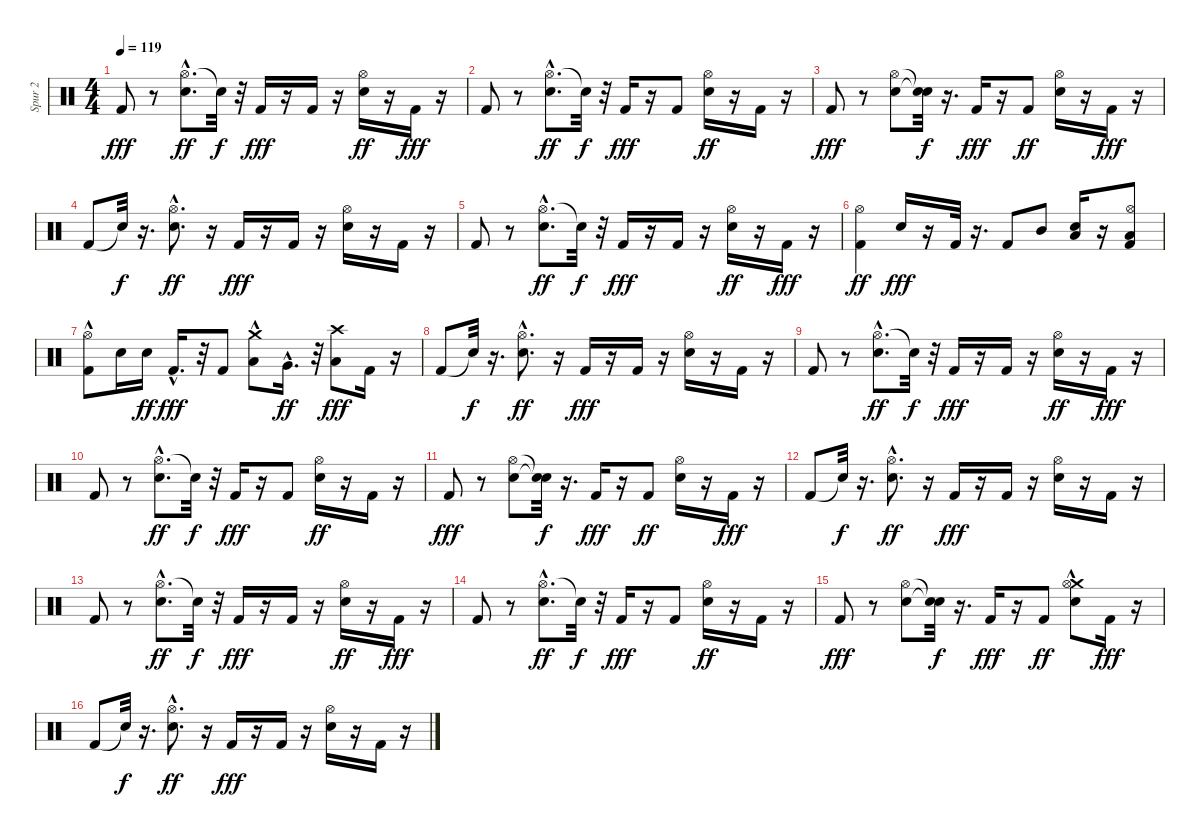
\track ("Spur 2" "Spur 2") {instrument percussion}
\staff {score}
\articulation defaults
\ts (4 4)
\tempo 119
\clef neutral
\ks c "Kick (hit) 2".8{dy fff}
r.8 ("Hi-Hat (open)"{hac} "Electric Snare (hit)").8{d dy ff} "Snare (hit)"{t}.32{dy f} r.32 "Kick (hit) 2".16{dy fff} r.16 "Kick (hit) 2".16 r.16 ("Hi-Hat (open)" "Electric Snare (hit)").16{dy ff} r.16 "Kick (hit) 2".16{dy fff} r.16 |
"Kick (hit) 2".8 r.8 ("Hi-Hat (open)"{hac} "Electric Snare (hit)").8{d dy ff} "Snare (hit)"{t}.32{dy f} r.32 "Kick (hit) 2".16{dy fff} r.16 "Kick (hit) 2".8 ("Hi-Hat (open)" "Electric Snare (hit)").16{dy ff} r.16 "Kick (hit) 2".16 r.16 |
"Kick (hit) 2".8{dy fff} r.8 ("Hi-Hat (open)" "Electric Snare (hit)").8 ("Snare (hit)"{t} "Snare (hit)"{t}).32{dy f} r.16{d} "Kick (hit) 2".16{dy fff} r.16 "Kick (hit) 2".8{dy ff} ("Hi-Hat (open)" "Electric Snare (hit)").16 r.16 "Kick (hit) 2".16{dy fff} r.16 |
"Kick (hit) 2".8 "Snare (hit)"{t}.32{dy f} r.16{d} ("Hi-Hat (open)"{hac} "Electric Snare (hit)").8{d dy ff} r.16 "Kick (hit) 2".16{dy fff} r.16 "Kick (hit) 2".16 r.16 ("Hi-Hat (open)" "Electric Snare (hit)").16 r.16 "Kick (hit) 2".16 r.16 |
"Kick (hit) 2".8 r.8 ("Hi-Hat (open)"{hac} "Electric Snare (hit)").8{d dy ff} "Snare (hit)"{t}.32{dy f} r.32 "Kick (hit) 2".16{dy fff} r.16 "Kick (hit) 2".16 r.16 ("Hi-Hat (open)" "Electric Snare (hit)").16{dy ff} r.16 "Kick (hit) 2".16{dy fff} r.16 |
("Kick (hit) 2" "Hi-Hat (open)").4{dy ff} "Electric Snare (hit)".16{dy fff} r.16 "Kick (hit) 2".32 r.16{d} "Kick (hit) 2".8 "Mid Tom (hit)".8 ("Low Tom (hit)" "Electric Snare (hit)").16 r.16 ("Kick (hit) 2" "Hi-Hat (open)" "Low Tom (hit)").8 |
("Hi-Hat (open)" "Kick (hit) 2"{hac}).8 "Electric Snare (hit)".16 "Snare (hit) 2".16{dy ff} "Kick (hit) 2"{hac}.16{d dy fff} r.32 "Kick (hit) 2".8 ("Crash medium (hit)"{hac} "Low Tom (hit)").8 "Very Low Tom (hit)"{hac}.16{d dy ff} r.32 ("Crash high (hit)" "Low Floor Tom (hit)").8{dy fff} "Kick (hit) 2".16 r.16 |
"Kick (hit) 2".8 "Snare (hit)"{t}.32{dy f} r.16{d} ("Hi-Hat (open)"{hac} "Electric Snare (hit)").8{d dy ff} r.16 "Kick (hit) 2".16{dy fff} r.16 "Kick (hit) 2".16 r.16 ("Hi-Hat (open)" "Electric Snare (hit)").16 r.16 "Kick (hit) 2".16 r.16 |
"Kick (hit) 2".8 r.8 ("Hi-Hat (open)"{hac} "Electric Snare (hit)").8{d dy ff} "Snare (hit)"{t}.32{dy f} r.32 "Kick (hit) 2".16{dy fff} r.16 "Kick (hit) 2".16 r.16 ("Hi-Hat (open)" "Electric Snare (hit)").16{dy ff} r.16 "Kick (hit) 2".16{dy fff} r.16 |
"Kick (hit) 2".8 r.8 ("Hi-Hat (open)"{hac} "Electric Snare (hit)").8{d dy ff} "Snare (hit)"{t}.32{dy f} r.32 "Kick (hit) 2".16{dy fff} r.16 "Kick (hit) 2".8 ("Hi-Hat (open)" "Electric Snare (hit)").16{dy ff} r.16 "Kick (hit) 2".16 r.16 |
"Kick (hit) 2".8{dy fff} r.8 ("Hi-Hat (open)" "Electric Snare (hit)").8 ("Snare (hit)"{t} "Snare (hit)"{t}).32{dy f} r.16{d} "Kick (hit) 2".16{dy fff} r.16 "Kick (hit) 2".8{dy ff} ("Hi-Hat (open)" "Electric Snare (hit)").16 r.16 "Kick (hit) 2".16{dy fff} r.16 |
"Kick (hit) 2".8 "Snare (hit)"{t}.32{dy f} r.16{d} ("Hi-Hat (open)"{hac} "Electric Snare (hit)").8{d dy ff} r.16 "Kick (hit) 2".16{dy fff} r.16 "Kick (hit) 2".16 r.16 ("Hi-Hat (open)" "Electric Snare (hit)").16 r.16 "Kick (hit) 2".16 r.16 |
"Kick (hit) 2".8 r.8 ("Hi-Hat (open)"{hac} "Electric Snare (hit)").8{d dy ff} "Snare (hit)"{t}.32{dy f} r.32 "Kick (hit) 2".16{dy fff} r.16 "Kick (hit) 2".16 r.16 ("Hi-Hat (open)" "Electric Snare (hit)").16{dy ff} r.16 "Kick (hit) 2".16{dy fff} r.16 |
"Kick (hit) 2".8 r.8 ("Hi-Hat (open)"{hac} "Electric Snare (hit)").8{d dy ff} "Snare (hit)"{t}.32{dy f} r.32 "Kick (hit) 2".16{dy fff} r.16 "Kick (hit) 2".8 ("Hi-Hat (open)" "Electric Snare (hit)").16{dy ff} r.16 "Kick (hit) 2".16 r.16 |
"Kick (hit) 2".8{dy fff} r.8 ("Hi-Hat (open)" "Electric Snare (hit)").8 ("Snare (hit)"{t} "Snare (hit)"{t}).32{dy f} r.16{d} "Kick (hit) 2".16{dy fff} r.16 "Kick (hit) 2".8{dy ff} ("Crash medium (hit)"{hac} "Hi-Hat (open)" "Electric Snare (hit)").8 "Kick (hit) 2".16{dy fff} r.16 |
"Kick (hit) 2".8 "Snare (hit)"{t}.32{dy f} r.16{d} ("Hi-Hat (open)"{hac} "Electric Snare (hit)").8{d dy ff} r.16 "Kick (hit) 2".16{dy fff} r.16 "Kick (hit) 2".16 r.16 ("Hi-Hat (open)" "Electric Snare (hit)").16 r.16 "Kick (hit) 2".16 r.16
